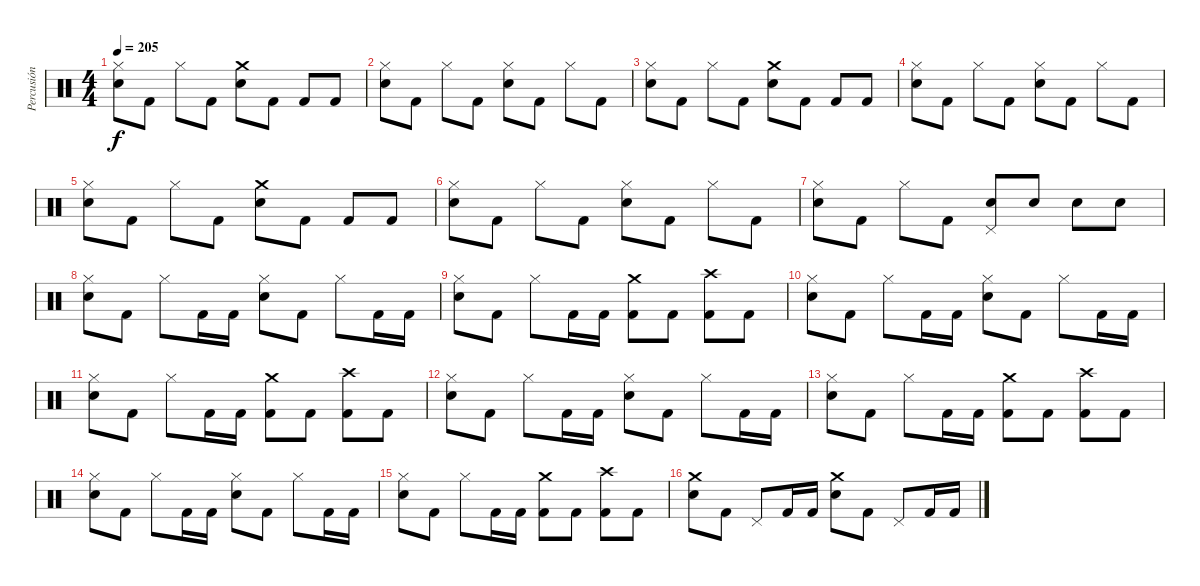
\track ("Percusión" "Percusión") {instrument percussion}
\staff {score}
\articulation defaults
\ts (4 4)
\tempo 205
\clef neutral
\ks c
("Hi-Hat (closed)" "Snare (hit) 2").8{dy f} "Kick (hit) 2".8 "Hi-Hat (closed)".8 "Kick (hit) 2".8 ("Crash medium (hit)" "Snare (hit) 2").8 "Kick (hit) 2".8 "Kick (hit) 2".8 "Kick (hit) 2".8 |
("Hi-Hat (closed)" "Snare (hit) 2").8 "Kick (hit) 2".8 "Hi-Hat (closed)".8 "Kick (hit) 2".8 ("Hi-Hat (closed)" "Snare (hit) 2").8 "Kick (hit) 2".8 "Hi-Hat (closed)".8 "Kick (hit) 2".8 |
("Hi-Hat (closed)" "Snare (hit) 2").8 "Kick (hit) 2".8 "Hi-Hat (closed)".8 "Kick (hit) 2".8 ("Crash medium (hit)" "Snare (hit) 2").8 "Kick (hit) 2".8 "Kick (hit) 2".8 "Kick (hit) 2".8 |
("Hi-Hat (closed)" "Snare (hit) 2").8 "Kick (hit) 2".8 "Hi-Hat (closed)".8 "Kick (hit) 2".8 ("Hi-Hat (closed)" "Snare (hit) 2").8 "Kick (hit) 2".8 "Hi-Hat (closed)".8 "Kick (hit) 2".8 |
("Hi-Hat (closed)" "Snare (hit) 2").8 "Kick (hit) 2".8 "Hi-Hat (closed)".8 "Kick (hit) 2".8 ("Crash medium (hit)" "Snare (hit) 2").8 "Kick (hit) 2".8 "Kick (hit) 2".8 "Kick (hit) 2".8 |
("Hi-Hat (closed)" "Snare (hit) 2").8 "Kick (hit) 2".8 "Hi-Hat (closed)".8 "Kick (hit) 2".8 ("Hi-Hat (closed)" "Snare (hit) 2").8 "Kick (hit) 2".8 "Hi-Hat (closed)".8 "Kick (hit) 2".8 |
("Hi-Hat (closed)" "Snare (hit) 2").8 "Kick (hit) 2".8 "Hi-Hat (closed)".8 "Kick (hit) 2".8 ("Pedal Hi-Hat (hit)" "Snare (hit) 2").8 "Snare (hit) 2".8 "Snare (hit) 2".8 "Snare (hit) 2".8 |
("Hi-Hat (closed)" "Snare (hit) 2").8 "Kick (hit) 2".8 "Hi-Hat (closed)".8 "Kick (hit) 2".16 "Kick (hit) 2".16 ("Hi-Hat (closed)" "Snare (hit) 2").8 "Kick (hit) 2".8 "Hi-Hat (closed)".8 "Kick (hit) 2".16 "Kick (hit) 2".16 |
("Hi-Hat (closed)" "Snare (hit) 2").8 "Kick (hit) 2".8 "Hi-Hat (closed)".8 "Kick (hit) 2".16 "Kick (hit) 2".16 ("Crash medium (hit)" "Kick (hit) 2").8 "Kick (hit) 2".8 ("Crash high (hit)" "Kick (hit) 2").8 "Kick (hit) 2".8 |
("Hi-Hat (closed)" "Snare (hit) 2").8 "Kick (hit) 2".8 "Hi-Hat (closed)".8 "Kick (hit) 2".16 "Kick (hit) 2".16 ("Hi-Hat (closed)" "Snare (hit) 2").8 "Kick (hit) 2".8 "Hi-Hat (closed)".8 "Kick (hit) 2".16 "Kick (hit) 2".16 |
("Hi-Hat (closed)" "Snare (hit) 2").8 "Kick (hit) 2".8 "Hi-Hat (closed)".8 "Kick (hit) 2".16 "Kick (hit) 2".16 ("Crash medium (hit)" "Kick (hit) 2").8 "Kick (hit) 2".8 ("Crash high (hit)" "Kick (hit) 2").8 "Kick (hit) 2".8 |
("Hi-Hat (closed)" "Snare (hit) 2").8 "Kick (hit) 2".8 "Hi-Hat (closed)".8 "Kick (hit) 2".16 "Kick (hit) 2".16 ("Hi-Hat (closed)" "Snare (hit) 2").8 "Kick (hit) 2".8 "Hi-Hat (closed)".8 "Kick (hit) 2".16 "Kick (hit) 2".16 |
("Hi-Hat (closed)" "Snare (hit) 2").8 "Kick (hit) 2".8 "Hi-Hat (closed)".8 "Kick (hit) 2".16 "Kick (hit) 2".16 ("Crash medium (hit)" "Kick (hit) 2").8 "Kick (hit) 2".8 ("Crash high (hit)" "Kick (hit) 2").8 "Kick (hit) 2".8 |
("Hi-Hat (closed)" "Snare (hit) 2").8 "Kick (hit) 2".8 "Hi-Hat (closed)".8 "Kick (hit) 2".16 "Kick (hit) 2".16 ("Hi-Hat (closed)" "Snare (hit) 2").8 "Kick (hit) 2".8 "Hi-Hat (closed)".8 "Kick (hit) 2".16 "Kick (hit) 2".16 |
("Hi-Hat (closed)" "Snare (hit) 2").8 "Kick (hit) 2".8 "Hi-Hat (closed)".8 "Kick (hit) 2".16 "Kick (hit) 2".16 ("Crash medium (hit)" "Kick (hit) 2").8 "Kick (hit) 2".8 ("Crash high (hit)" "Kick (hit) 2").8 "Kick (hit) 2".8 |
("Crash medium (hit)" "Snare (hit) 2").8 "Kick (hit) 2".8 "Pedal Hi-Hat (hit)".8 "Kick (hit) 2".16 "Kick (hit) 2".16 ("Crash medium (hit)" "Snare (hit) 2").8 "Kick (hit) 2".8 "Pedal Hi-Hat (hit)".8 "Kick (hit) 2".16 "Kick (hit) 2".16
